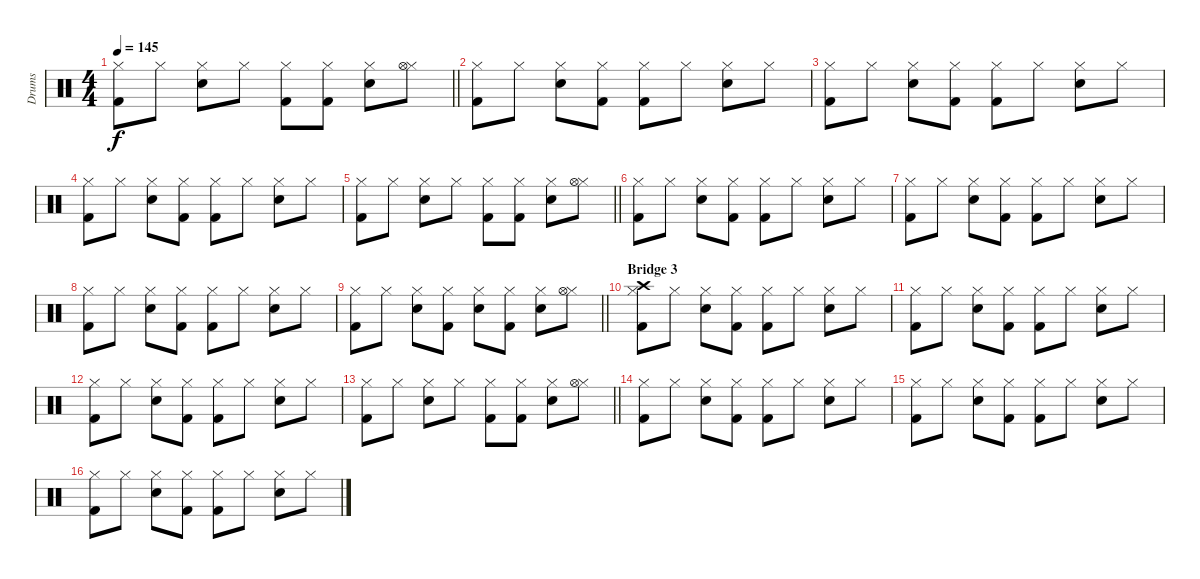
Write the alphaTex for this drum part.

\track ("Drums" "Drums") {instrument percussion}
\staff {score}
\articulation defaults
\ts (4 4)
\tempo 145
\clef neutral
\barLineRight lightlight
\ks c
("Kick (hit) 2" "Hi-Hat (closed)").8{dy f} "Hi-Hat (closed)".8 ("Snare (hit) 2" "Hi-Hat (closed)").8 "Hi-Hat (closed)".8 ("Kick (hit) 2" "Hi-Hat (closed)").8 ("Kick (hit) 2" "Hi-Hat (closed)").8 ("Snare (hit) 2" "Hi-Hat (closed)").8 ("Hi-Hat (closed)" "Hi-Hat (open)").8 |
("Kick (hit) 2" "Hi-Hat (closed)").8 "Hi-Hat (closed)".8 ("Snare (hit) 2" "Hi-Hat (closed)").8 ("Kick (hit) 2" "Hi-Hat (closed)").8 ("Kick (hit) 2" "Hi-Hat (closed)").8 "Hi-Hat (closed)".8 ("Snare (hit) 2" "Hi-Hat (closed)").8 "Hi-Hat (closed)".8 |
("Kick (hit) 2" "Hi-Hat (closed)").8 "Hi-Hat (closed)".8 ("Snare (hit) 2" "Hi-Hat (closed)").8 ("Kick (hit) 2" "Hi-Hat (closed)").8 ("Kick (hit) 2" "Hi-Hat (closed)").8 "Hi-Hat (closed)".8 ("Snare (hit) 2" "Hi-Hat (closed)").8 "Hi-Hat (closed)".8 |
("Kick (hit) 2" "Hi-Hat (closed)").8 "Hi-Hat (closed)".8 ("Snare (hit) 2" "Hi-Hat (closed)").8 ("Kick (hit) 2" "Hi-Hat (closed)").8 ("Kick (hit) 2" "Hi-Hat (closed)").8 "Hi-Hat (closed)".8 ("Snare (hit) 2" "Hi-Hat (closed)").8 "Hi-Hat (closed)".8 |
\barLineRight lightlight
("Kick (hit) 2" "Hi-Hat (closed)").8 "Hi-Hat (closed)".8 ("Snare (hit) 2" "Hi-Hat (closed)").8 "Hi-Hat (closed)".8 ("Kick (hit) 2" "Hi-Hat (closed)").8 ("Kick (hit) 2" "Hi-Hat (closed)").8 ("Snare (hit) 2" "Hi-Hat (closed)").8 ("Hi-Hat (closed)" "Hi-Hat (open)").8 |
("Kick (hit) 2" "Hi-Hat (closed)").8 "Hi-Hat (closed)".8 ("Snare (hit) 2" "Hi-Hat (closed)").8 ("Kick (hit) 2" "Hi-Hat (closed)").8 ("Kick (hit) 2" "Hi-Hat (closed)").8 "Hi-Hat (closed)".8 ("Snare (hit) 2" "Hi-Hat (closed)").8 "Hi-Hat (closed)".8 |
("Kick (hit) 2" "Hi-Hat (closed)").8 "Hi-Hat (closed)".8 ("Snare (hit) 2" "Hi-Hat (closed)").8 ("Kick (hit) 2" "Hi-Hat (closed)").8 ("Kick (hit) 2" "Hi-Hat (closed)").8 "Hi-Hat (closed)".8 ("Snare (hit) 2" "Hi-Hat (closed)").8 "Hi-Hat (closed)".8 |
("Kick (hit) 2" "Hi-Hat (closed)").8 "Hi-Hat (closed)".8 ("Snare (hit) 2" "Hi-Hat (closed)").8 ("Kick (hit) 2" "Hi-Hat (closed)").8 ("Kick (hit) 2" "Hi-Hat (closed)").8 "Hi-Hat (closed)".8 ("Snare (hit) 2" "Hi-Hat (closed)").8 "Hi-Hat (closed)".8 |
\barLineRight lightlight
("Kick (hit) 2" "Hi-Hat (closed)").8 "Hi-Hat (closed)".8 ("Snare (hit) 2" "Hi-Hat (closed)").8 ("Kick (hit) 2" "Hi-Hat (closed)").8 ("Snare (hit) 2" "Hi-Hat (closed)").8 ("Kick (hit) 2" "Hi-Hat (closed)").8 ("Snare (hit) 2" "Hi-Hat (closed)").8 ("Hi-Hat (closed)" "Hi-Hat (open)").8 |
\section ("" "Bridge 3")
("Kick (hit) 2" "Hi-Hat (closed)" "Crash high (hit)").8 "Hi-Hat (closed)".8 ("Snare (hit) 2" "Hi-Hat (closed)").8 ("Kick (hit) 2" "Hi-Hat (closed)").8 ("Kick (hit) 2" "Hi-Hat (closed)").8 "Hi-Hat (closed)".8 ("Snare (hit) 2" "Hi-Hat (closed)").8 "Hi-Hat (closed)".8 |
("Kick (hit) 2" "Hi-Hat (closed)").8 "Hi-Hat (closed)".8 ("Snare (hit) 2" "Hi-Hat (closed)").8 ("Kick (hit) 2" "Hi-Hat (closed)").8 ("Kick (hit) 2" "Hi-Hat (closed)").8 "Hi-Hat (closed)".8 ("Snare (hit) 2" "Hi-Hat (closed)").8 "Hi-Hat (closed)".8 |
("Kick (hit) 2" "Hi-Hat (closed)").8 "Hi-Hat (closed)".8 ("Snare (hit) 2" "Hi-Hat (closed)").8 ("Kick (hit) 2" "Hi-Hat (closed)").8 ("Kick (hit) 2" "Hi-Hat (closed)").8 "Hi-Hat (closed)".8 ("Snare (hit) 2" "Hi-Hat (closed)").8 "Hi-Hat (closed)".8 |
\barLineRight lightlight
("Kick (hit) 2" "Hi-Hat (closed)").8 "Hi-Hat (closed)".8 ("Snare (hit) 2" "Hi-Hat (closed)").8 "Hi-Hat (closed)".8 ("Kick (hit) 2" "Hi-Hat (closed)").8 ("Kick (hit) 2" "Hi-Hat (closed)").8 ("Snare (hit) 2" "Hi-Hat (closed)").8 ("Hi-Hat (closed)" "Hi-Hat (open)").8 |
("Kick (hit) 2" "Hi-Hat (closed)").8 "Hi-Hat (closed)".8 ("Snare (hit) 2" "Hi-Hat (closed)").8 ("Kick (hit) 2" "Hi-Hat (closed)").8 ("Kick (hit) 2" "Hi-Hat (closed)").8 "Hi-Hat (closed)".8 ("Snare (hit) 2" "Hi-Hat (closed)").8 "Hi-Hat (closed)".8 |
("Kick (hit) 2" "Hi-Hat (closed)").8 "Hi-Hat (closed)".8 ("Snare (hit) 2" "Hi-Hat (closed)").8 ("Kick (hit) 2" "Hi-Hat (closed)").8 ("Kick (hit) 2" "Hi-Hat (closed)").8 "Hi-Hat (closed)".8 ("Snare (hit) 2" "Hi-Hat (closed)").8 "Hi-Hat (closed)".8 |
("Kick (hit) 2" "Hi-Hat (closed)").8 "Hi-Hat (closed)".8 ("Snare (hit) 2" "Hi-Hat (closed)").8 ("Kick (hit) 2" "Hi-Hat (closed)").8 ("Kick (hit) 2" "Hi-Hat (closed)").8 "Hi-Hat (closed)".8 ("Snare (hit) 2" "Hi-Hat (closed)").8 "Hi-Hat (closed)".8
